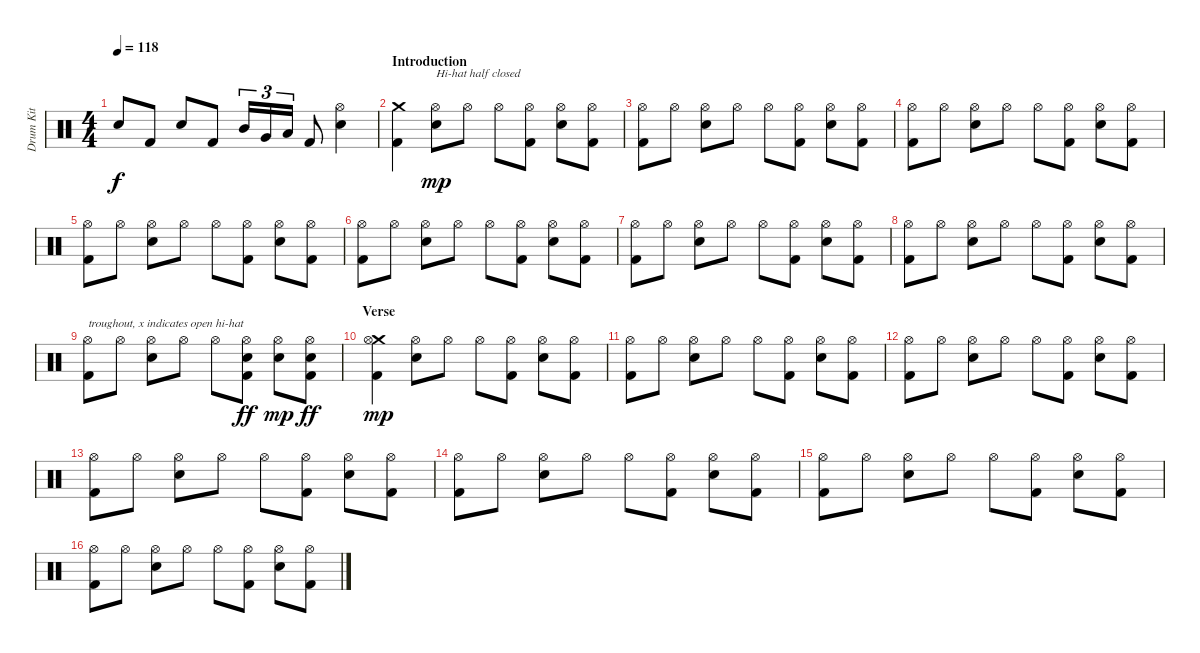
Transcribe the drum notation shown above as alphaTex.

\track ("Drum Kit" "Drum Kit") {instrument percussion}
\staff {score}
\articulation defaults
\ts (4 4)
\tempo 118
\clef neutral
\ks c "Electric Snare (hit)".8{dy f} "Kick (hit) 2".8 "Electric Snare (hit)".8 "Kick (hit) 2".8 "Mid Tom (hit)".16{tu (3 2)} "Very Low Tom (hit)".16{tu (3 2)} "Low Tom (hit)".16{tu (3 2)} "Kick (hit) 2".8
("Hi-Hat (open)" "Electric Snare (hit)").4 |
\section ("" "Introduction")
("Crash medium (hit)" "Kick (hit) 2").4 ("Hi-Hat (open)" "Electric Snare (hit)").8{txt "Hi-hat half closed" dy mp} "Hi-Hat (open)".8 "Hi-Hat (open)".8 ("Hi-Hat (open)" "Kick (hit) 2").8 ("Hi-Hat (open)" "Electric Snare (hit)").8 ("Hi-Hat (open)" "Kick (hit) 2").8 |
("Hi-Hat (open)" "Kick (hit) 2").8 "Hi-Hat (open)".8 ("Hi-Hat (open)" "Electric Snare (hit)").8 "Hi-Hat (open)".8 "Hi-Hat (open)".8 ("Hi-Hat (open)" "Kick (hit) 2").8 ("Hi-Hat (open)" "Electric Snare (hit)").8 ("Hi-Hat (open)" "Kick (hit) 2").8 |
("Hi-Hat (open)" "Kick (hit) 2").8 "Hi-Hat (open)".8 ("Hi-Hat (open)" "Electric Snare (hit)").8 "Hi-Hat (open)".8 "Hi-Hat (open)".8 ("Hi-Hat (open)" "Kick (hit) 2").8 ("Hi-Hat (open)" "Electric Snare (hit)").8 ("Hi-Hat (open)" "Kick (hit) 2").8 |
("Hi-Hat (open)" "Kick (hit) 2").8 "Hi-Hat (open)".8 ("Hi-Hat (open)" "Electric Snare (hit)").8 "Hi-Hat (open)".8 "Hi-Hat (open)".8 ("Hi-Hat (open)" "Kick (hit) 2").8 ("Hi-Hat (open)" "Electric Snare (hit)").8 ("Hi-Hat (open)" "Kick (hit) 2").8 |
("Hi-Hat (open)" "Kick (hit) 2").8 "Hi-Hat (open)".8 ("Hi-Hat (open)" "Electric Snare (hit)").8 "Hi-Hat (open)".8 "Hi-Hat (open)".8 ("Hi-Hat (open)" "Kick (hit) 2").8 ("Hi-Hat (open)" "Electric Snare (hit)").8 ("Hi-Hat (open)" "Kick (hit) 2").8 |
("Hi-Hat (open)" "Kick (hit) 2").8 "Hi-Hat (open)".8 ("Hi-Hat (open)" "Electric Snare (hit)").8 "Hi-Hat (open)".8 "Hi-Hat (open)".8 ("Hi-Hat (open)" "Kick (hit) 2").8 ("Hi-Hat (open)" "Electric Snare (hit)").8 ("Hi-Hat (open)" "Kick (hit) 2").8 |
("Hi-Hat (open)" "Kick (hit) 2").8 "Hi-Hat (open)".8 ("Hi-Hat (open)" "Electric Snare (hit)").8 "Hi-Hat (open)".8 "Hi-Hat (open)".8 ("Hi-Hat (open)" "Kick (hit) 2").8 ("Hi-Hat (open)" "Electric Snare (hit)").8 ("Hi-Hat (open)" "Kick (hit) 2").8 |
("Hi-Hat (open)" "Kick (hit) 2").8{txt "troughout, x indicates open hi-hat"} "Hi-Hat (open)".8 ("Hi-Hat (open)" "Electric Snare (hit)").8 "Hi-Hat (open)".8 "Hi-Hat (open)".8 ("Snare (hit)"{x} "Hi-Hat (open)" "Kick (hit) 2").8{dy ff} ("Hi-Hat (open)" "Electric Snare (hit)").8{dy mp} ("Snare (hit)"{x} "Hi-Hat (open)" "Kick (hit) 2").8{dy ff} |
\section ("" "Verse")
("Crash medium (hit)" "Hi-Hat (open)" "Kick (hit) 2").4{dy mp} ("Hi-Hat (open)" "Electric Snare (hit)").8 "Hi-Hat (open)".8 "Hi-Hat (open)".8 ("Hi-Hat (open)" "Kick (hit) 2").8 ("Hi-Hat (open)" "Electric Snare (hit)").8 ("Hi-Hat (open)" "Kick (hit) 2").8 |
("Hi-Hat (open)" "Kick (hit) 2").8 "Hi-Hat (open)".8 ("Hi-Hat (open)" "Electric Snare (hit)").8 "Hi-Hat (open)".8 "Hi-Hat (open)".8 ("Hi-Hat (open)" "Kick (hit) 2").8 ("Hi-Hat (open)" "Electric Snare (hit)").8 ("Hi-Hat (open)" "Kick (hit) 2").8 |
("Hi-Hat (open)" "Kick (hit) 2").8 "Hi-Hat (open)".8 ("Hi-Hat (open)" "Electric Snare (hit)").8 "Hi-Hat (open)".8 "Hi-Hat (open)".8 ("Hi-Hat (open)" "Kick (hit) 2").8 ("Hi-Hat (open)" "Electric Snare (hit)").8 ("Hi-Hat (open)" "Kick (hit) 2").8 |
("Hi-Hat (open)" "Kick (hit) 2").8 "Hi-Hat (open)".8 ("Hi-Hat (open)" "Electric Snare (hit)").8 "Hi-Hat (open)".8 "Hi-Hat (open)".8 ("Hi-Hat (open)" "Kick (hit) 2").8 ("Hi-Hat (open)" "Electric Snare (hit)").8 ("Hi-Hat (open)" "Kick (hit) 2").8 |
("Hi-Hat (open)" "Kick (hit) 2").8 "Hi-Hat (open)".8 ("Hi-Hat (open)" "Electric Snare (hit)").8 "Hi-Hat (open)".8 "Hi-Hat (open)".8 ("Hi-Hat (open)" "Kick (hit) 2").8 ("Hi-Hat (open)" "Electric Snare (hit)").8 ("Hi-Hat (open)" "Kick (hit) 2").8 |
("Hi-Hat (open)" "Kick (hit) 2").8 "Hi-Hat (open)".8 ("Hi-Hat (open)" "Electric Snare (hit)").8 "Hi-Hat (open)".8 "Hi-Hat (open)".8 ("Hi-Hat (open)" "Kick (hit) 2").8 ("Hi-Hat (open)" "Electric Snare (hit)").8 ("Hi-Hat (open)" "Kick (hit) 2").8 |
("Hi-Hat (open)" "Kick (hit) 2").8 "Hi-Hat (open)".8 ("Hi-Hat (open)" "Electric Snare (hit)").8 "Hi-Hat (open)".8 "Hi-Hat (open)".8 ("Hi-Hat (open)" "Kick (hit) 2").8 ("Hi-Hat (open)" "Electric Snare (hit)").8 ("Hi-Hat (open)" "Kick (hit) 2").8
